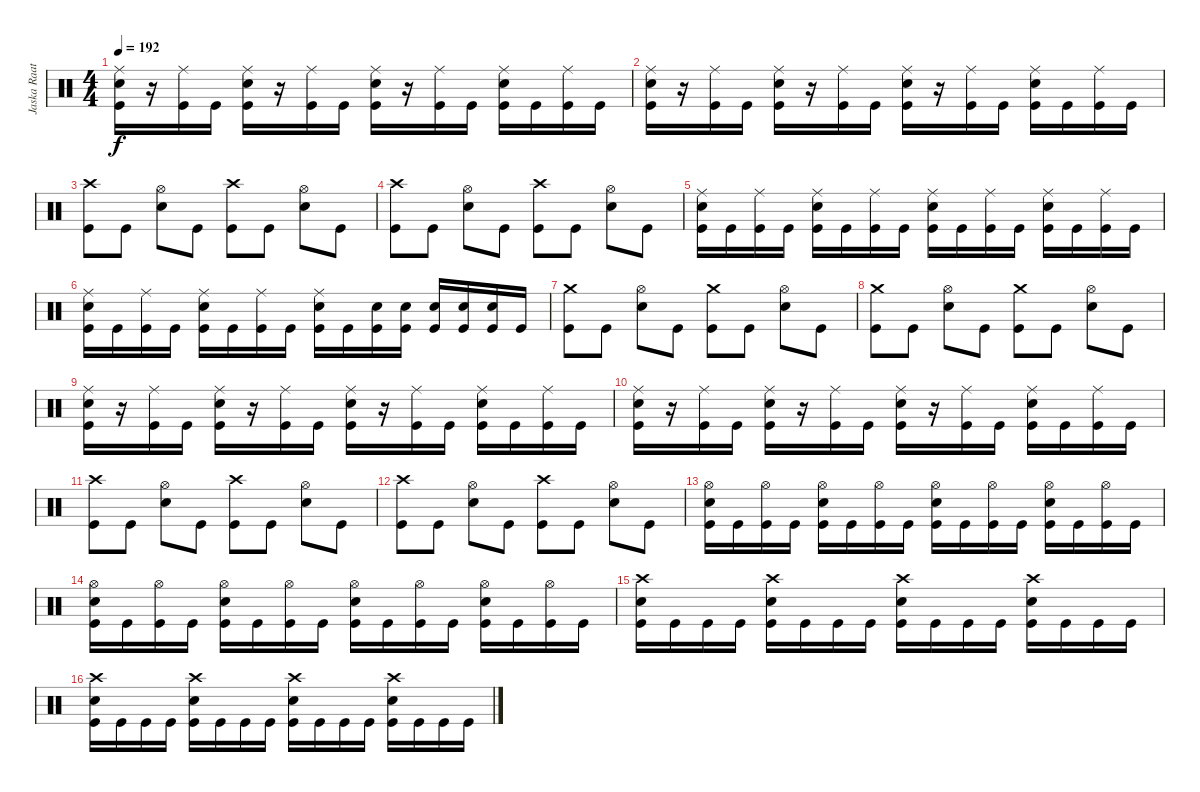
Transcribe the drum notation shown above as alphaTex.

\track ("Jaska Raatikainen" "Jaska Raat") {instrument percussion}
\staff {score}
\articulation defaults
\ts (4 4)
\tempo 192
\clef neutral
\ks c
("Ride (middle)" "Electric Snare (hit)" "Kick (hit)").16{dy f} r.16 ("Ride (middle)" "Kick (hit)").16 "Kick (hit)".16 ("Ride (middle)" "Electric Snare (hit)" "Kick (hit)").16 r.16 ("Ride (middle)" "Kick (hit)").16 "Kick (hit)".16 ("Ride (middle)" "Electric Snare (hit)" "Kick (hit)").16 r.16 ("Ride (middle)" "Kick (hit)").16 "Kick (hit)".16 ("Ride (middle)" "Electric Snare (hit)" "Kick (hit)").16 "Kick (hit)".16 ("Ride (middle)" "Kick (hit)").16 "Kick (hit)".16 |
("Ride (middle)" "Electric Snare (hit)" "Kick (hit)").16 r.16 ("Ride (middle)" "Kick (hit)").16 "Kick (hit)".16 ("Ride (middle)" "Electric Snare (hit)" "Kick (hit)").16 r.16 ("Ride (middle)" "Kick (hit)").16 "Kick (hit)".16 ("Ride (middle)" "Electric Snare (hit)" "Kick (hit)").16 r.16 ("Ride (middle)" "Kick (hit)").16 "Kick (hit)".16 ("Ride (middle)" "Electric Snare (hit)" "Kick (hit)").16 "Kick (hit)".16 ("Ride (middle)" "Kick (hit)").16 "Kick (hit)".16 |
("Crash high (hit)" "Kick (hit)").8 "Kick (hit)".8 ("Hi-Hat (open)" "Electric Snare (hit)").8 "Kick (hit)".8 ("Crash high (hit)" "Kick (hit)").8 "Kick (hit)".8 ("Hi-Hat (open)" "Electric Snare (hit)").8 "Kick (hit)".8 |
("Crash high (hit)" "Kick (hit)").8 "Kick (hit)".8 ("Hi-Hat (open)" "Electric Snare (hit)").8 "Kick (hit)".8 ("Crash high (hit)" "Kick (hit)").8 "Kick (hit)".8 ("Hi-Hat (open)" "Electric Snare (hit)").8 "Kick (hit)".8 |
("Ride (middle)" "Electric Snare (hit)" "Kick (hit)").16 "Kick (hit)".16 ("Ride (middle)" "Kick (hit)").16 "Kick (hit)".16 ("Ride (middle)" "Electric Snare (hit)" "Kick (hit)").16 "Kick (hit)".16 ("Ride (middle)" "Kick (hit)").16 "Kick (hit)".16 ("Ride (middle)" "Electric Snare (hit)" "Kick (hit)").16 "Kick (hit)".16 ("Ride (middle)" "Kick (hit)").16 "Kick (hit)".16 ("Ride (middle)" "Electric Snare (hit)" "Kick (hit)").16 "Kick (hit)".16 ("Ride (middle)" "Kick (hit)").16 "Kick (hit)".16 |
("Ride (middle)" "Electric Snare (hit)" "Kick (hit)").16 "Kick (hit)".16 ("Ride (middle)" "Kick (hit)").16 "Kick (hit)".16 ("Ride (middle)" "Electric Snare (hit)" "Kick (hit)").16 "Kick (hit)".16 ("Ride (middle)" "Kick (hit)").16 "Kick (hit)".16 ("Ride (middle)" "Electric Snare (hit)" "Kick (hit)").16 "Kick (hit)".16 ("Electric Snare (hit)" "Kick (hit)").16 ("Electric Snare (hit)" "Kick (hit)").16 ("Electric Snare (hit)" "Kick (hit)").16 ("Electric Snare (hit)" "Kick (hit)").16 ("Electric Snare (hit)" "Kick (hit)").16 "Kick (hit)".16 |
("Crash medium (hit)" "Kick (hit)").8 "Kick (hit)".8 ("Hi-Hat (open)" "Electric Snare (hit)").8 "Kick (hit)".8 ("Crash medium (hit)" "Kick (hit)").8 "Kick (hit)".8 ("Hi-Hat (open)" "Electric Snare (hit)").8 "Kick (hit)".8 |
("Crash medium (hit)" "Kick (hit)").8 "Kick (hit)".8 ("Hi-Hat (open)" "Electric Snare (hit)").8 "Kick (hit)".8 ("Crash medium (hit)" "Kick (hit)").8 "Kick (hit)".8 ("Hi-Hat (open)" "Electric Snare (hit)").8 "Kick (hit)".8 |
("Ride (middle)" "Electric Snare (hit)" "Kick (hit)").16 r.16 ("Ride (middle)" "Kick (hit)").16 "Kick (hit)".16 ("Ride (middle)" "Electric Snare (hit)" "Kick (hit)").16 r.16 ("Ride (middle)" "Kick (hit)").16 "Kick (hit)".16 ("Ride (middle)" "Electric Snare (hit)" "Kick (hit)").16 r.16 ("Ride (middle)" "Kick (hit)").16 "Kick (hit)".16 ("Ride (middle)" "Electric Snare (hit)" "Kick (hit)").16 "Kick (hit)".16 ("Ride (middle)" "Kick (hit)").16 "Kick (hit)".16 |
("Ride (middle)" "Electric Snare (hit)" "Kick (hit)").16 r.16 ("Ride (middle)" "Kick (hit)").16 "Kick (hit)".16 ("Ride (middle)" "Electric Snare (hit)" "Kick (hit)").16 r.16 ("Ride (middle)" "Kick (hit)").16 "Kick (hit)".16 ("Ride (middle)" "Electric Snare (hit)" "Kick (hit)").16 r.16 ("Ride (middle)" "Kick (hit)").16 "Kick (hit)".16 ("Ride (middle)" "Electric Snare (hit)" "Kick (hit)").16 "Kick (hit)".16 ("Ride (middle)" "Kick (hit)").16 "Kick (hit)".16 |
("Crash high (hit)" "Kick (hit)").8 "Kick (hit)".8 ("Hi-Hat (open)" "Electric Snare (hit)").8 "Kick (hit)".8 ("Crash high (hit)" "Kick (hit)").8 "Kick (hit)".8 ("Hi-Hat (open)" "Electric Snare (hit)").8 "Kick (hit)".8 |
("Crash high (hit)" "Kick (hit)").8 "Kick (hit)".8 ("Hi-Hat (open)" "Electric Snare (hit)").8 "Kick (hit)".8 ("Crash high (hit)" "Kick (hit)").8 "Kick (hit)".8 ("Hi-Hat (open)" "Electric Snare (hit)").8 "Kick (hit)".8 |
("Hi-Hat (open)" "Electric Snare (hit)" "Kick (hit)").16 "Kick (hit)".16 ("Hi-Hat (open)" "Kick (hit)").16 "Kick (hit)".16 ("Hi-Hat (open)" "Electric Snare (hit)" "Kick (hit)").16 "Kick (hit)".16 ("Hi-Hat (open)" "Kick (hit)").16 "Kick (hit)".16 ("Hi-Hat (open)" "Electric Snare (hit)" "Kick (hit)").16 "Kick (hit)".16 ("Hi-Hat (open)" "Kick (hit)").16 "Kick (hit)".16 ("Hi-Hat (open)" "Electric Snare (hit)" "Kick (hit)").16 "Kick (hit)".16 ("Hi-Hat (open)" "Kick (hit)").16 "Kick (hit)".16 |
("Hi-Hat (open)" "Electric Snare (hit)" "Kick (hit)").16 "Kick (hit)".16 ("Hi-Hat (open)" "Kick (hit)").16 "Kick (hit)".16 ("Hi-Hat (open)" "Electric Snare (hit)" "Kick (hit)").16 "Kick (hit)".16 ("Hi-Hat (open)" "Kick (hit)").16 "Kick (hit)".16 ("Hi-Hat (open)" "Electric Snare (hit)" "Kick (hit)").16 "Kick (hit)".16 ("Hi-Hat (open)" "Kick (hit)").16 "Kick (hit)".16 ("Hi-Hat (open)" "Electric Snare (hit)" "Kick (hit)").16 "Kick (hit)".16 ("Hi-Hat (open)" "Kick (hit)").16 "Kick (hit)".16 |
("Crash high (hit)" "Electric Snare (hit)" "Kick (hit)").16 "Kick (hit)".16 "Kick (hit)".16 "Kick (hit)".16 ("Crash high (hit)" "Electric Snare (hit)" "Kick (hit)").16 "Kick (hit)".16 "Kick (hit)".16 "Kick (hit)".16 ("Crash high (hit)" "Electric Snare (hit)" "Kick (hit)").16 "Kick (hit)".16 "Kick (hit)".16 "Kick (hit)".16 ("Crash high (hit)" "Electric Snare (hit)" "Kick (hit)").16 "Kick (hit)".16 "Kick (hit)".16 "Kick (hit)".16 |
("Crash high (hit)" "Electric Snare (hit)" "Kick (hit)").16 "Kick (hit)".16 "Kick (hit)".16 "Kick (hit)".16 ("Crash high (hit)" "Electric Snare (hit)" "Kick (hit)").16 "Kick (hit)".16 "Kick (hit)".16 "Kick (hit)".16 ("Crash high (hit)" "Electric Snare (hit)" "Kick (hit)").16 "Kick (hit)".16 "Kick (hit)".16 "Kick (hit)".16 ("Crash high (hit)" "Electric Snare (hit)" "Kick (hit)").16 "Kick (hit)".16 "Kick (hit)".16 "Kick (hit)".16
